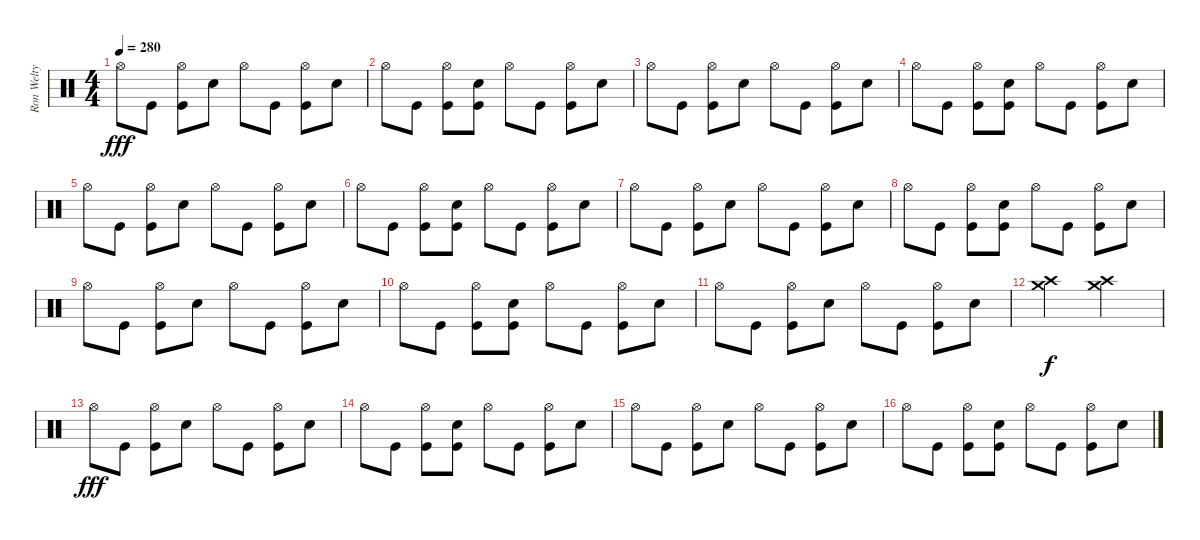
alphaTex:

\track ("Ron Welty" "Ron Welty") {instrument percussion}
\staff {score}
\articulation defaults
\ts (4 4)
\tempo 280
\clef neutral
\ks c "Hi-Hat (open)".8{dy fff} "Kick (hit)".8
("Hi-Hat (open)" "Kick (hit)").8 "Snare (hit) 2".8 "Hi-Hat (open)".8 "Kick (hit)".8 ("Hi-Hat (open)" "Kick (hit)").8 "Snare (hit) 2".8 |
"Hi-Hat (open)".8 "Kick (hit)".8 ("Hi-Hat (open)" "Kick (hit)").8 ("Snare (hit) 2" "Kick (hit)").8 "Hi-Hat (open)".8 "Kick (hit)".8 ("Hi-Hat (open)" "Kick (hit)").8 "Snare (hit) 2".8 |
"Hi-Hat (open)".8 "Kick (hit)".8 ("Hi-Hat (open)" "Kick (hit)").8 "Snare (hit) 2".8 "Hi-Hat (open)".8 "Kick (hit)".8 ("Hi-Hat (open)" "Kick (hit)").8 "Snare (hit) 2".8 |
"Hi-Hat (open)".8 "Kick (hit)".8 ("Hi-Hat (open)" "Kick (hit)").8 ("Snare (hit) 2" "Kick (hit)").8 "Hi-Hat (open)".8 "Kick (hit)".8 ("Hi-Hat (open)" "Kick (hit)").8 "Snare (hit) 2".8 |
"Hi-Hat (open)".8 "Kick (hit)".8 ("Hi-Hat (open)" "Kick (hit)").8 "Snare (hit) 2".8 "Hi-Hat (open)".8 "Kick (hit)".8 ("Hi-Hat (open)" "Kick (hit)").8 "Snare (hit) 2".8 |
"Hi-Hat (open)".8 "Kick (hit)".8 ("Hi-Hat (open)" "Kick (hit)").8 ("Snare (hit) 2" "Kick (hit)").8 "Hi-Hat (open)".8 "Kick (hit)".8 ("Hi-Hat (open)" "Kick (hit)").8 "Snare (hit) 2".8 |
"Hi-Hat (open)".8 "Kick (hit)".8 ("Hi-Hat (open)" "Kick (hit)").8 "Snare (hit) 2".8 "Hi-Hat (open)".8 "Kick (hit)".8 ("Hi-Hat (open)" "Kick (hit)").8 "Snare (hit) 2".8 |
"Hi-Hat (open)".8 "Kick (hit)".8 ("Hi-Hat (open)" "Kick (hit)").8 ("Snare (hit) 2" "Kick (hit)").8 "Hi-Hat (open)".8 "Kick (hit)".8 ("Hi-Hat (open)" "Kick (hit)").8 "Snare (hit) 2".8 |
"Hi-Hat (open)".8 "Kick (hit)".8 ("Hi-Hat (open)" "Kick (hit)").8 "Snare (hit) 2".8 "Hi-Hat (open)".8 "Kick (hit)".8 ("Hi-Hat (open)" "Kick (hit)").8 "Snare (hit) 2".8 |
"Hi-Hat (open)".8 "Kick (hit)".8 ("Hi-Hat (open)" "Kick (hit)").8 ("Snare (hit) 2" "Kick (hit)").8 "Hi-Hat (open)".8 "Kick (hit)".8 ("Hi-Hat (open)" "Kick (hit)").8 "Snare (hit) 2".8 |
"Hi-Hat (open)".8 "Kick (hit)".8 ("Hi-Hat (open)" "Kick (hit)").8 "Snare (hit) 2".8 "Hi-Hat (open)".8 "Kick (hit)".8 ("Hi-Hat (open)" "Kick (hit)").8 "Snare (hit) 2".8 |
("Crash high (hit)" "Crash medium (hit)").2{dy f} ("Crash high (hit)" "Crash medium (hit)").2 |
"Hi-Hat (open)".8{dy fff} "Kick (hit)".8 ("Hi-Hat (open)" "Kick (hit)").8 "Snare (hit) 2".8 "Hi-Hat (open)".8 "Kick (hit)".8 ("Hi-Hat (open)" "Kick (hit)").8 "Snare (hit) 2".8 |
"Hi-Hat (open)".8 "Kick (hit)".8 ("Hi-Hat (open)" "Kick (hit)").8 ("Snare (hit) 2" "Kick (hit)").8 "Hi-Hat (open)".8 "Kick (hit)".8 ("Hi-Hat (open)" "Kick (hit)").8 "Snare (hit) 2".8 |
"Hi-Hat (open)".8 "Kick (hit)".8 ("Hi-Hat (open)" "Kick (hit)").8 "Snare (hit) 2".8 "Hi-Hat (open)".8 "Kick (hit)".8 ("Hi-Hat (open)" "Kick (hit)").8 "Snare (hit) 2".8 |
"Hi-Hat (open)".8 "Kick (hit)".8 ("Hi-Hat (open)" "Kick (hit)").8 ("Snare (hit) 2" "Kick (hit)").8 "Hi-Hat (open)".8 "Kick (hit)".8 ("Hi-Hat (open)" "Kick (hit)").8 "Snare (hit) 2".8
